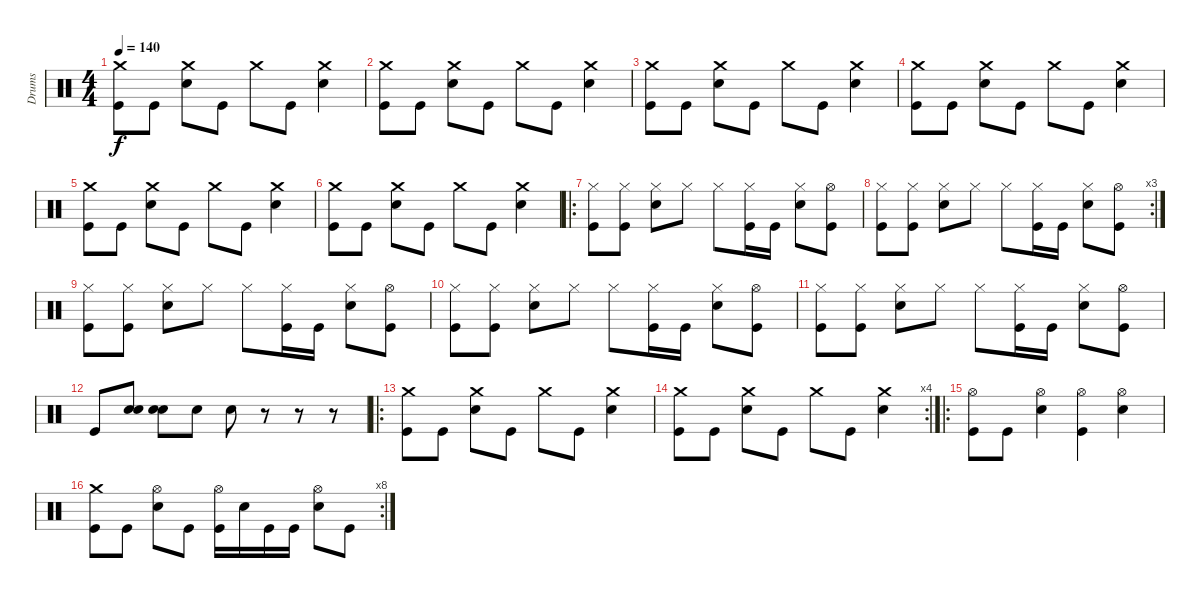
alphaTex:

\track ("Drums" "Drums") {instrument percussion}
\staff {score}
\articulation defaults
\ts (4 4)
\tempo 140
\clef neutral
\ks c
("Crash medium (hit)" "Kick (hit)").8{dy f} "Kick (hit)".8 ("Crash medium (hit)" "Snare (hit) 2").8 "Kick (hit)".8 "Crash medium (hit)".8 "Kick (hit)".8 ("Crash medium (hit)" "Snare (hit) 2").4 |
("Crash medium (hit)" "Kick (hit)").8 "Kick (hit)".8 ("Crash medium (hit)" "Snare (hit) 2").8 "Kick (hit)".8 "Crash medium (hit)".8 "Kick (hit)".8 ("Crash medium (hit)" "Snare (hit) 2").4 |
("Crash medium (hit)" "Kick (hit)").8 "Kick (hit)".8 ("Crash medium (hit)" "Snare (hit) 2").8 "Kick (hit)".8 "Crash medium (hit)".8 "Kick (hit)".8 ("Crash medium (hit)" "Snare (hit) 2").4 |
("Crash medium (hit)" "Kick (hit)").8 "Kick (hit)".8 ("Crash medium (hit)" "Snare (hit) 2").8 "Kick (hit)".8 "Crash medium (hit)".8 "Kick (hit)".8 ("Crash medium (hit)" "Snare (hit) 2").4 |
("Crash medium (hit)" "Kick (hit)").8 "Kick (hit)".8 ("Crash medium (hit)" "Snare (hit) 2").8 "Kick (hit)".8 "Crash medium (hit)".8 "Kick (hit)".8 ("Crash medium (hit)" "Snare (hit) 2").4 |
("Crash medium (hit)" "Kick (hit)").8 "Kick (hit)".8 ("Crash medium (hit)" "Snare (hit) 2").8 "Kick (hit)".8 "Crash medium (hit)".8 "Kick (hit)".8 ("Crash medium (hit)" "Snare (hit) 2").4 |
\ro
("Hi-Hat (closed)" "Kick (hit)").8 ("Hi-Hat (closed)" "Kick (hit)").8 ("Hi-Hat (closed)" "Snare (hit) 2").8 "Hi-Hat (closed)".8 "Hi-Hat (closed)".8 ("Hi-Hat (closed)" "Kick (hit)").16 "Kick (hit)".16 ("Hi-Hat (closed)" "Snare (hit) 2").8 ("Hi-Hat (open)" "Kick (hit)").8 |
\rc 3
("Hi-Hat (closed)" "Kick (hit)").8 ("Hi-Hat (closed)" "Kick (hit)").8 ("Hi-Hat (closed)" "Snare (hit) 2").8 "Hi-Hat (closed)".8 "Hi-Hat (closed)".8 ("Hi-Hat (closed)" "Kick (hit)").16 "Kick (hit)".16 ("Hi-Hat (closed)" "Snare (hit) 2").8 ("Hi-Hat (open)" "Kick (hit)").8 |
("Hi-Hat (closed)" "Kick (hit)").8 ("Hi-Hat (closed)" "Kick (hit)").8 ("Hi-Hat (closed)" "Snare (hit) 2").8 "Hi-Hat (closed)".8 "Hi-Hat (closed)".8 ("Hi-Hat (closed)" "Kick (hit)").16 "Kick (hit)".16 ("Hi-Hat (closed)" "Snare (hit) 2").8 ("Hi-Hat (open)" "Kick (hit)").8 |
("Hi-Hat (closed)" "Kick (hit)").8 ("Hi-Hat (closed)" "Kick (hit)").8 ("Hi-Hat (closed)" "Snare (hit) 2").8 "Hi-Hat (closed)".8 "Hi-Hat (closed)".8 ("Hi-Hat (closed)" "Kick (hit)").16 "Kick (hit)".16 ("Hi-Hat (closed)" "Snare (hit) 2").8 ("Hi-Hat (open)" "Kick (hit)").8 |
("Hi-Hat (closed)" "Kick (hit)").8 ("Hi-Hat (closed)" "Kick (hit)").8 ("Hi-Hat (closed)" "Snare (hit) 2").8 "Hi-Hat (closed)".8 "Hi-Hat (closed)".8 ("Hi-Hat (closed)" "Kick (hit)").16 "Kick (hit)".16 ("Hi-Hat (closed)" "Snare (hit) 2").8 ("Hi-Hat (open)" "Kick (hit)").8 |
"Kick (hit)".8 ("Electric Snare (hit)" "Snare (hit) 2").8 ("Electric Snare (hit)" "Snare (hit) 2").8 "Snare (hit) 2".8 "Snare (hit) 2".8 r.8 r.8 r.8 |
\ro
("Crash medium (hit)" "Kick (hit)").8 "Kick (hit)".8 ("Crash medium (hit)" "Snare (hit) 2").8 "Kick (hit)".8 "Crash medium (hit)".8 "Kick (hit)".8 ("Crash medium (hit)" "Snare (hit) 2").4 |
\rc 4
("Crash medium (hit)" "Kick (hit)").8 "Kick (hit)".8 ("Crash medium (hit)" "Snare (hit) 2").8 "Kick (hit)".8 "Crash medium (hit)".8 "Kick (hit)".8 ("Crash medium (hit)" "Snare (hit) 2").4 |
\ro
("Hi-Hat (open)" "Kick (hit)").8 "Kick (hit)".8 ("Hi-Hat (open)" "Snare (hit) 2").4 ("Hi-Hat (open)" "Kick (hit)").4 ("Hi-Hat (open)" "Snare (hit) 2").4 |
\rc 8
("Crash medium (hit)" "Kick (hit)").8 "Kick (hit)".8 ("Hi-Hat (open)" "Snare (hit) 2").8 "Kick (hit)".8 ("Hi-Hat (open)" "Kick (hit)").16 "Snare (hit) 2".16 "Kick (hit)".16 "Kick (hit)".16 ("Hi-Hat (open)" "Snare (hit) 2").8 "Kick (hit)".8
